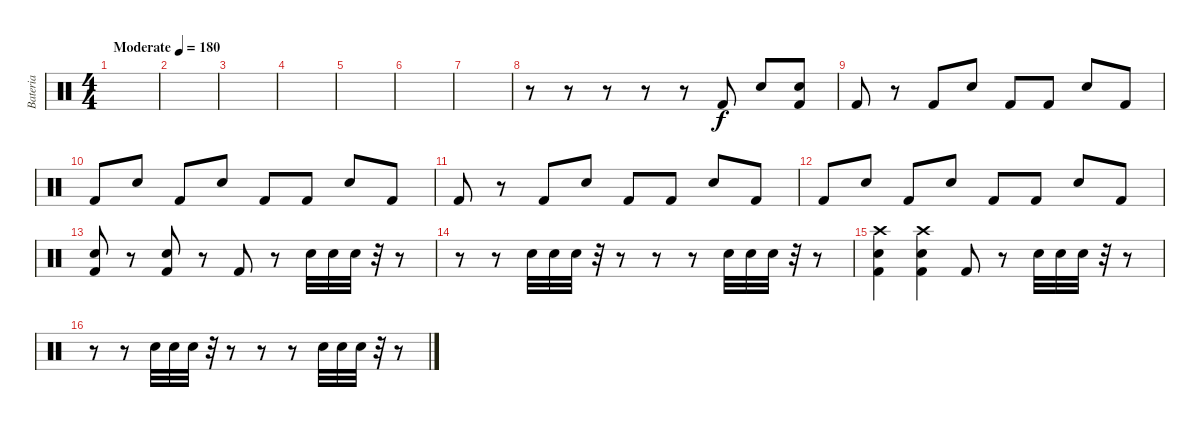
\track ("Bateria" "Bateria") {instrument percussion}
\staff {score}
\articulation defaults
\ts (4 4)
\tempo (180 "Moderate")
\clef neutral
\ks c
|
|
|
|
|
|
|
r.8 r.8 r.8 r.8 r.8 "Kick (hit) 2".8 "Electric Snare (hit)".8 ("Kick (hit) 2" "Electric Snare (hit)").8 |
"Kick (hit) 2".8 r.8 "Kick (hit) 2".8 "Electric Snare (hit)".8 "Kick (hit) 2".8 "Kick (hit) 2".8 "Electric Snare (hit)".8 "Kick (hit) 2".8 |
"Kick (hit) 2".8 "Electric Snare (hit)".8 "Kick (hit) 2".8 "Electric Snare (hit)".8 "Kick (hit) 2".8 "Kick (hit) 2".8 "Electric Snare (hit)".8 "Kick (hit) 2".8 |
"Kick (hit) 2".8 r.8 "Kick (hit) 2".8 "Electric Snare (hit)".8 "Kick (hit) 2".8 "Kick (hit) 2".8 "Electric Snare (hit)".8 "Kick (hit) 2".8 |
"Kick (hit) 2".8 "Electric Snare (hit)".8 "Kick (hit) 2".8 "Electric Snare (hit)".8 "Kick (hit) 2".8 "Kick (hit) 2".8 "Electric Snare (hit)".8 "Kick (hit) 2".8 |
("Kick (hit) 2" "Electric Snare (hit)").8 r.8 ("Kick (hit) 2" "Electric Snare (hit)").8 r.8 "Kick (hit) 2".8 r.8 "Electric Snare (hit)".32 "Electric Snare (hit)".32 "Electric Snare (hit)".32 r.32 r.8 |
r.8 r.8 "Electric Snare (hit)".32 "Electric Snare (hit)".32 "Electric Snare (hit)".32 r.32 r.8 r.8 r.8 "Electric Snare (hit)".32 "Electric Snare (hit)".32 "Electric Snare (hit)".32 r.32 r.8 |
("Kick (hit) 2" "Electric Snare (hit)" "Crash high (hit)").4 ("Kick (hit) 2" "Electric Snare (hit)" "Crash high (hit)").4 "Kick (hit) 2".8 r.8 "Electric Snare (hit)".32 "Electric Snare (hit)".32 "Electric Snare (hit)".32 r.32 r.8 |
r.8 r.8 "Electric Snare (hit)".32 "Electric Snare (hit)".32 "Electric Snare (hit)".32 r.32 r.8 r.8 r.8 "Electric Snare (hit)".32 "Electric Snare (hit)".32 "Electric Snare (hit)".32 r.32 r.8
